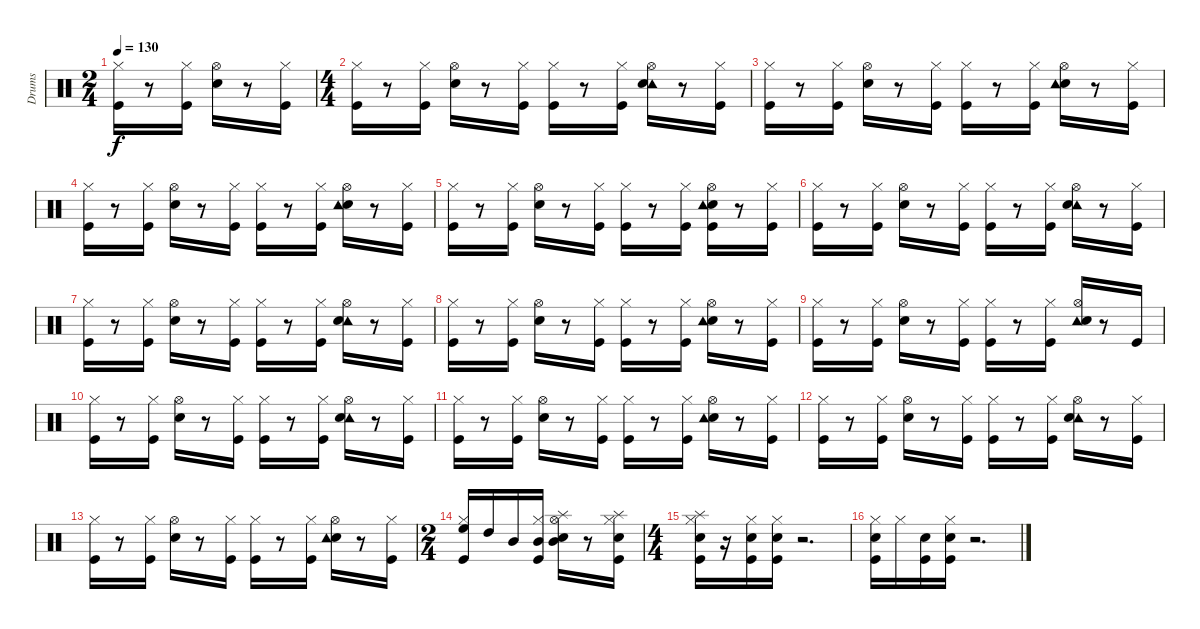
\track ("Drums" "Drums") {instrument percussion}
\staff {score}
\articulation defaults
\ts (2 4)
\tempo 130
\clef neutral
\ks c
("Kick (hit)" "Hi-Hat (closed)").16{dy f} r.8 ("Kick (hit)" "Hi-Hat (closed)").16 ("Electric Snare (hit)" "Hi-Hat (open)").16 r.8 ("Kick (hit)" "Hi-Hat (closed)").16 |
\ts (4 4)
("Kick (hit)" "Hi-Hat (closed)").16 r.8 ("Hi-Hat (closed)" "Kick (hit)").16 ("Electric Snare (hit)" "Hi-Hat (open)").16 r.8 ("Kick (hit)" "Hi-Hat (closed)").16 ("Kick (hit)" "Hi-Hat (closed)").16 r.8 ("Kick (hit)" "Hi-Hat (closed)").16 ("Hi-Hat (open)" "Tambourine (hit)" "Electric Snare (hit)").16 r.8 ("Kick (hit)" "Hi-Hat (closed)").16 |
("Hi-Hat (closed)" "Kick (hit)").16 r.8 ("Hi-Hat (closed)" "Kick (hit)").16 ("Electric Snare (hit)" "Hi-Hat (open)").16 r.8 ("Hi-Hat (closed)" "Kick (hit)").16 ("Kick (hit)" "Hi-Hat (closed)").16 r.8 ("Kick (hit)" "Hi-Hat (closed)").16 ("Electric Snare (hit)" "Hi-Hat (open)" "Tambourine (hit)").16 r.8 ("Kick (hit)" "Hi-Hat (closed)").16 |
("Kick (hit)" "Hi-Hat (closed)").16 r.8 ("Kick (hit)" "Hi-Hat (closed)").16 ("Hi-Hat (open)" "Electric Snare (hit)").16 r.8 ("Kick (hit)" "Hi-Hat (closed)").16 ("Kick (hit)" "Hi-Hat (closed)").16 r.8 ("Hi-Hat (closed)" "Kick (hit)").16 ("Electric Snare (hit)" "Tambourine (hit)" "Hi-Hat (open)").16 r.8 ("Hi-Hat (closed)" "Kick (hit)").16 |
("Hi-Hat (closed)" "Kick (hit)").16 r.8 ("Hi-Hat (closed)" "Kick (hit)").16 ("Electric Snare (hit)" "Hi-Hat (open)").16 r.8 ("Kick (hit)" "Hi-Hat (closed)").16 ("Kick (hit)" "Hi-Hat (closed)").16 r.8 ("Kick (hit)" "Hi-Hat (closed)").16 ("Electric Snare (hit)" "Hi-Hat (open)" "Tambourine (hit)" "Kick (hit)").16 r.8 ("Hi-Hat (closed)" "Kick (hit)").16 |
("Hi-Hat (closed)" "Kick (hit)").16 r.8 ("Hi-Hat (closed)" "Kick (hit)").16 ("Electric Snare (hit)" "Hi-Hat (open)").16 r.8 ("Kick (hit)" "Hi-Hat (closed)").16 ("Kick (hit)" "Hi-Hat (closed)").16 r.8 ("Kick (hit)" "Hi-Hat (closed)").16 ("Hi-Hat (open)" "Tambourine (hit)" "Electric Snare (hit)").16 r.8 ("Hi-Hat (closed)" "Kick (hit)").16 |
("Kick (hit)" "Hi-Hat (closed)").16 r.8 ("Kick (hit)" "Hi-Hat (closed)").16 ("Hi-Hat (open)" "Electric Snare (hit)").16 r.8 ("Hi-Hat (closed)" "Kick (hit)").16 ("Kick (hit)" "Hi-Hat (closed)").16 r.8 ("Hi-Hat (closed)" "Kick (hit)").16 ("Hi-Hat (open)" "Tambourine (hit)" "Electric Snare (hit)").16 r.8 ("Kick (hit)" "Hi-Hat (closed)").16 |
("Kick (hit)" "Hi-Hat (closed)").16 r.8 ("Kick (hit)" "Hi-Hat (closed)").16 ("Electric Snare (hit)" "Hi-Hat (open)").16 r.8 ("Kick (hit)" "Hi-Hat (closed)").16 ("Kick (hit)" "Hi-Hat (closed)").16 r.8 ("Hi-Hat (closed)" "Kick (hit)").16 ("Electric Snare (hit)" "Hi-Hat (open)" "Tambourine (hit)").16 r.8 ("Kick (hit)" "Hi-Hat (closed)").16 |
("Hi-Hat (closed)" "Kick (hit)").16 r.8 ("Hi-Hat (closed)" "Kick (hit)").16 ("Electric Snare (hit)" "Hi-Hat (open)").16 r.8 ("Hi-Hat (closed)" "Kick (hit)").16 ("Kick (hit)" "Hi-Hat (closed)").16 r.8 ("Hi-Hat (closed)" "Kick (hit)").16 ("Tambourine (hit)" "Electric Snare (hit)" "Hi-Hat (open)").16 r.8 "Kick (hit)".16 |
("Kick (hit)" "Hi-Hat (closed)").16 r.8 ("Hi-Hat (closed)" "Kick (hit)").16 ("Electric Snare (hit)" "Hi-Hat (open)").16 r.8 ("Kick (hit)" "Hi-Hat (closed)").16 ("Hi-Hat (closed)" "Kick (hit)").16 r.8 ("Kick (hit)" "Hi-Hat (closed)").16 ("Tambourine (hit)" "Electric Snare (hit)" "Hi-Hat (open)").16 r.8 ("Kick (hit)" "Hi-Hat (closed)").16 |
("Kick (hit)" "Hi-Hat (closed)").16 r.8 ("Kick (hit)" "Hi-Hat (closed)").16 ("Hi-Hat (open)" "Electric Snare (hit)").16 r.8 ("Kick (hit)" "Hi-Hat (closed)").16 ("Kick (hit)" "Hi-Hat (closed)").16 r.8 ("Kick (hit)" "Hi-Hat (closed)").16 ("Electric Snare (hit)" "Tambourine (hit)" "Hi-Hat (open)").16 r.8 ("Kick (hit)" "Hi-Hat (closed)").16 |
("Kick (hit)" "Hi-Hat (closed)").16 r.8 ("Hi-Hat (closed)" "Kick (hit)").16 ("Electric Snare (hit)" "Hi-Hat (open)").16 r.8 ("Kick (hit)" "Hi-Hat (closed)").16 ("Hi-Hat (closed)" "Kick (hit)").16 r.8 ("Kick (hit)" "Hi-Hat (closed)").16 ("Tambourine (hit)" "Electric Snare (hit)" "Hi-Hat (open)").16 r.8 ("Hi-Hat (closed)" "Kick (hit)").16 |
("Kick (hit)" "Hi-Hat (closed)").16 r.8 ("Kick (hit)" "Hi-Hat (closed)").16 ("Electric Snare (hit)" "Hi-Hat (open)").16 r.8 ("Kick (hit)" "Hi-Hat (closed)").16 ("Hi-Hat (closed)" "Kick (hit)").16 r.8 ("Hi-Hat (closed)" "Kick (hit)").16 ("Electric Snare (hit)" "Tambourine (hit)" "Hi-Hat (open)").16 r.8 ("Kick (hit)" "Hi-Hat (closed)").16 |
\ts (2 4)
("High Floor Tom (hit)" "Kick (hit)" "Hi-Hat (closed)").16 "High Tom (hit)".16 "Mid Tom (hit)".16 ("Mid Tom (hit)" "Kick (hit)" "Hi-Hat (closed)").16 ("Splash (hit)" "Electric Snare (hit)" "Hi-Hat (open)" "Mid Tom (hit)").16 r.8 ("Kick (hit)" "Electric Snare (hit)" "Hi-Hat (closed)" "Splash (hit)").16 |
\ts (4 4)
("Kick (hit)" "Electric Snare (hit)" "Splash (hit)" "Hi-Hat (closed)").16 r.16 ("Kick (hit)" "Electric Snare (hit)" "Hi-Hat (closed)").16 ("Kick (hit)" "Electric Snare (hit)" "Hi-Hat (closed)").16 r.2{d} |
("Electric Snare (hit)" "Hi-Hat (closed)" "Kick (hit)").16 "Hi-Hat (closed)".16 ("Kick (hit)" "Electric Snare (hit)").16 ("Kick (hit)" "Electric Snare (hit)" "Hi-Hat (closed)").16 r.2{d}
